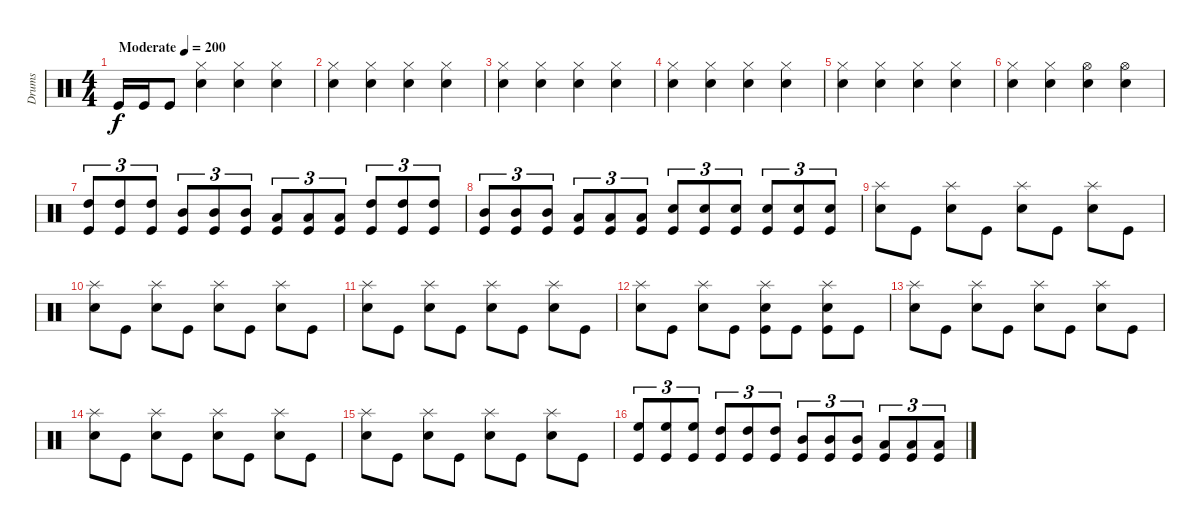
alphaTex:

\track ("Drums" "Drums") {instrument percussion}
\staff {score}
\articulation defaults
\ts (4 4)
\tempo (200 "Moderate")
\clef neutral
\ks c "Kick (hit)".16{dy f} "Kick (hit)".16 "Kick (hit)".8
("Hi-Hat (closed)" "Snare (hit) 2").4 ("Hi-Hat (closed)" "Snare (hit) 2").4 ("Hi-Hat (closed)" "Snare (hit) 2").4 |
("Hi-Hat (closed)" "Snare (hit) 2").4 ("Hi-Hat (closed)" "Snare (hit) 2").4 ("Hi-Hat (closed)" "Snare (hit) 2").4 ("Hi-Hat (closed)" "Snare (hit) 2").4 |
("Hi-Hat (closed)" "Snare (hit) 2").4 ("Hi-Hat (closed)" "Snare (hit) 2").4 ("Hi-Hat (closed)" "Snare (hit) 2").4 ("Hi-Hat (closed)" "Snare (hit) 2").4 |
("Hi-Hat (closed)" "Snare (hit) 2").4 ("Hi-Hat (closed)" "Snare (hit) 2").4 ("Hi-Hat (closed)" "Snare (hit) 2").4 ("Hi-Hat (closed)" "Snare (hit) 2").4 |
("Hi-Hat (closed)" "Snare (hit) 2").4 ("Hi-Hat (closed)" "Snare (hit) 2").4 ("Hi-Hat (closed)" "Snare (hit) 2").4 ("Hi-Hat (closed)" "Snare (hit) 2").4 |
("Hi-Hat (closed)" "Snare (hit) 2").4 ("Hi-Hat (closed)" "Snare (hit) 2").4 ("Hi-Hat (open)" "Snare (hit) 2").4 ("Hi-Hat (open)" "Snare (hit) 2").4 |
("High Tom (hit)" "Kick (hit)").8{tu (3 2)} ("High Tom (hit)" "Kick (hit)").8{tu (3 2)} ("High Tom (hit)" "Kick (hit)").8{tu (3 2)} ("Mid Tom (hit)" "Kick (hit)").8{tu (3 2)} ("Mid Tom (hit)" "Kick (hit)").8{tu (3 2)} ("Mid Tom (hit)" "Kick (hit)").8{tu (3 2)} ("Low Tom (hit)" "Kick (hit)").8{tu (3 2)} ("Low Tom (hit)" "Kick (hit)").8{tu (3 2)} ("Low Tom (hit)" "Kick (hit)").8{tu (3 2)} ("High Tom (hit)" "Kick (hit)").8{tu (3 2)} ("High Tom (hit)" "Kick (hit)").8{tu (3 2)} ("High Tom (hit)" "Kick (hit)").8{tu (3 2)} |
("Mid Tom (hit)" "Kick (hit)").8{tu (3 2)} ("Mid Tom (hit)" "Kick (hit)").8{tu (3 2)} ("Mid Tom (hit)" "Kick (hit)").8{tu (3 2)} ("Low Tom (hit)" "Kick (hit)").8{tu (3 2)} ("Low Tom (hit)" "Kick (hit)").8{tu (3 2)} ("Low Tom (hit)" "Kick (hit)").8{tu (3 2)} ("Snare (hit) 2" "Kick (hit)").8{tu (3 2)} ("Snare (hit) 2" "Kick (hit)").8{tu (3 2)} ("Snare (hit) 2" "Kick (hit)").8{tu (3 2)} ("Snare (hit) 2" "Kick (hit)").8{tu (3 2)} ("Snare (hit) 2" "Kick (hit)").8{tu (3 2)} ("Snare (hit) 2" "Kick (hit)").8{tu (3 2)} |
("Splash (hit)" "Snare (hit) 2").8 "Kick (hit)".8 ("Splash (hit)" "Snare (hit) 2").8 "Kick (hit)".8 ("Splash (hit)" "Snare (hit) 2").8 "Kick (hit)".8 ("Splash (hit)" "Snare (hit) 2").8 "Kick (hit)".8 |
("Splash (hit)" "Snare (hit) 2").8 "Kick (hit)".8 ("Splash (hit)" "Snare (hit) 2").8 "Kick (hit)".8 ("Splash (hit)" "Snare (hit) 2").8 "Kick (hit)".8 ("Splash (hit)" "Snare (hit) 2").8 "Kick (hit)".8 |
("Splash (hit)" "Snare (hit) 2").8 "Kick (hit)".8 ("Splash (hit)" "Snare (hit) 2").8 "Kick (hit)".8 ("Splash (hit)" "Snare (hit) 2").8 "Kick (hit)".8 ("Splash (hit)" "Snare (hit) 2").8 "Kick (hit)".8 |
("Splash (hit)" "Snare (hit) 2").8 "Kick (hit)".8 ("Splash (hit)" "Snare (hit) 2").8 "Kick (hit)".8 ("Splash (hit)" "Snare (hit) 2" "Kick (hit)").8 "Kick (hit)".8 ("Splash (hit)" "Snare (hit) 2" "Kick (hit)").8 "Kick (hit)".8 |
("Splash (hit)" "Snare (hit) 2").8 "Kick (hit)".8 ("Splash (hit)" "Snare (hit) 2").8 "Kick (hit)".8 ("Splash (hit)" "Snare (hit) 2").8 "Kick (hit)".8 ("Splash (hit)" "Snare (hit) 2").8 "Kick (hit)".8 |
("Splash (hit)" "Snare (hit) 2").8 "Kick (hit)".8 ("Splash (hit)" "Snare (hit) 2").8 "Kick (hit)".8 ("Splash (hit)" "Snare (hit) 2").8 "Kick (hit)".8 ("Splash (hit)" "Snare (hit) 2").8 "Kick (hit)".8 |
("Splash (hit)" "Snare (hit) 2").8 "Kick (hit)".8 ("Splash (hit)" "Snare (hit) 2").8 "Kick (hit)".8 ("Splash (hit)" "Snare (hit) 2").8 "Kick (hit)".8 ("Splash (hit)" "Snare (hit) 2").8 "Kick (hit)".8 |
("High Floor Tom (hit)" "Kick (hit)").8{tu (3 2)} ("High Floor Tom (hit)" "Kick (hit)").8{tu (3 2)} ("High Floor Tom (hit)" "Kick (hit)").8{tu (3 2)} ("High Tom (hit)" "Kick (hit)").8{tu (3 2)} ("High Tom (hit)" "Kick (hit)").8{tu (3 2)} ("High Tom (hit)" "Kick (hit)").8{tu (3 2)} ("Mid Tom (hit)" "Kick (hit)").8{tu (3 2)} ("Mid Tom (hit)" "Kick (hit)").8{tu (3 2)} ("Mid Tom (hit)" "Kick (hit)").8{tu (3 2)} ("Low Tom (hit)" "Kick (hit)").8{tu (3 2)} ("Low Tom (hit)" "Kick (hit)").8{tu (3 2)} ("Low Tom (hit)" "Kick (hit)").8{tu (3 2)}
